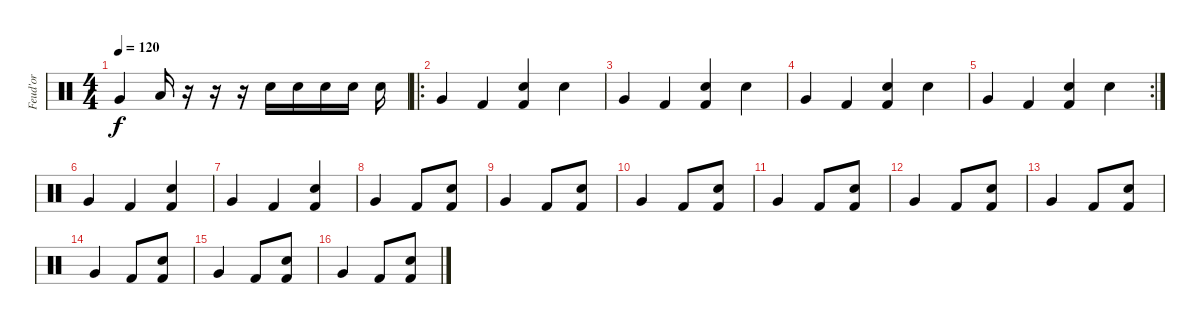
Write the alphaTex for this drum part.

\track ("Feud'or" "Feud'or") {instrument percussion}
\staff {score}
\articulation defaults
\ts (4 4)
\tempo 120
\clef neutral
\ks c "Very Low Tom (hit)".4{dy f} "Low Floor Tom (hit)".16
r.16 r.16 r.16 "Electric Snare (hit)".16 "Electric Snare (hit)".16 "Electric Snare (hit)".16 "Electric Snare (hit)".16 "Electric Snare (hit)".16 |
\ro "Very Low Tom (hit)".4 "Kick (hit) 2".4
("Kick (hit) 2" "Electric Snare (hit)").4 "Snare (hit) 2".4 |
"Very Low Tom (hit)".4 "Kick (hit) 2".4 ("Kick (hit) 2" "Electric Snare (hit)").4 "Snare (hit) 2".4 |
"Very Low Tom (hit)".4 "Kick (hit) 2".4 ("Kick (hit) 2" "Electric Snare (hit)").4 "Snare (hit) 2".4 |
\rc 2 "Very Low Tom (hit)".4 "Kick (hit) 2".4
("Kick (hit) 2" "Electric Snare (hit)").4 "Snare (hit) 2".4 |
"Very Low Tom (hit)".4 "Kick (hit) 2".4 ("Kick (hit) 2" "Electric Snare (hit)").4 |
"Very Low Tom (hit)".4 "Kick (hit) 2".4 ("Kick (hit) 2" "Electric Snare (hit)").4 |
"Very Low Tom (hit)".4 "Kick (hit) 2".8 ("Kick (hit) 2" "Snare (hit) 2").8 |
"Very Low Tom (hit)".4 "Kick (hit) 2".8 ("Kick (hit) 2" "Snare (hit) 2").8 |
"Very Low Tom (hit)".4 "Kick (hit) 2".8 ("Kick (hit) 2" "Snare (hit) 2").8 |
"Very Low Tom (hit)".4 "Kick (hit) 2".8 ("Kick (hit) 2" "Snare (hit) 2").8 |
"Very Low Tom (hit)".4 "Kick (hit) 2".8 ("Kick (hit) 2" "Snare (hit) 2").8 |
"Very Low Tom (hit)".4 "Kick (hit) 2".8 ("Kick (hit) 2" "Snare (hit) 2").8 |
"Very Low Tom (hit)".4 "Kick (hit) 2".8 ("Kick (hit) 2" "Snare (hit) 2").8 |
"Very Low Tom (hit)".4 "Kick (hit) 2".8 ("Kick (hit) 2" "Snare (hit) 2").8 |
"Very Low Tom (hit)".4 "Kick (hit) 2".8 ("Kick (hit) 2" "Snare (hit) 2").8
